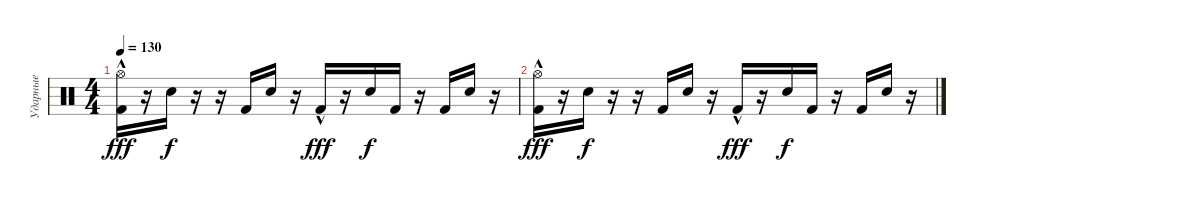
\track ("Ударные" "Ударные") {instrument percussion}
\staff {score}
\articulation defaults
\ts (4 4)
\tempo 130
\clef neutral
\ks c
("Hi-Hat (open)" "Kick (hit) 2"{hac}).16{dy fff} r.16 "Electric Snare (hit)".16{dy f} r.16 r.16 "Kick (hit) 2".16 "Electric Snare (hit)".16 r.16 "Kick (hit) 2"{hac}.16{dy fff} r.16 "Electric Snare (hit)".16{dy f} "Kick (hit) 2".16 r.16 "Kick (hit) 2".16 "Electric Snare (hit)".16 r.16 |
("Hi-Hat (open)" "Kick (hit) 2"{hac}).16{dy fff} r.16 "Electric Snare (hit)".16{dy f} r.16 r.16 "Kick (hit) 2".16 "Electric Snare (hit)".16 r.16 "Kick (hit) 2"{hac}.16{dy fff} r.16 "Electric Snare (hit)".16{dy f} "Kick (hit) 2".16 r.16 "Kick (hit) 2".16 "Electric Snare (hit)".16 r.16
